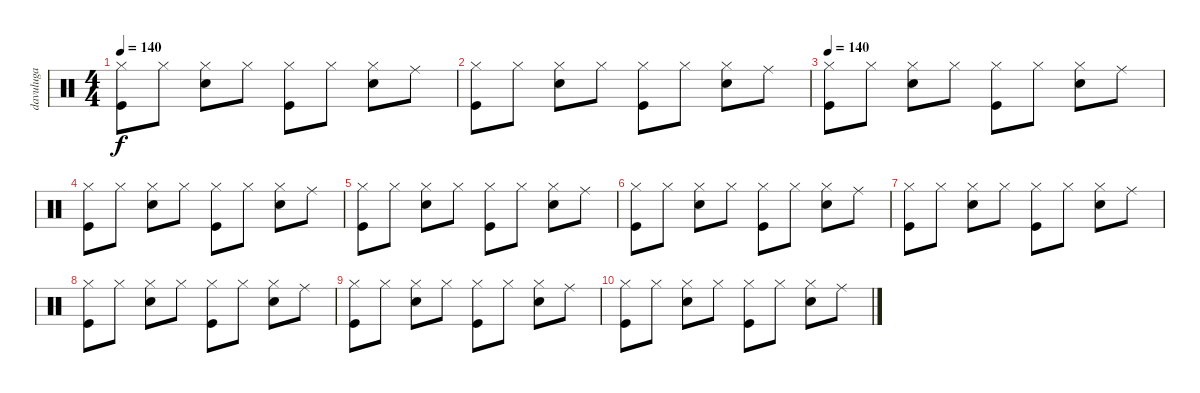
\track ("davuluga" "davuluga") {instrument percussion}
\staff {score}
\articulation defaults
\ts (4 4)
\tempo 140
\clef neutral
\ks c
("Hi-Hat (closed)" "Kick (hit)").8{dy f} "Hi-Hat (closed)".8 ("Hi-Hat (closed)" "Electric Snare (hit)").8 "Hi-Hat (closed)".8 ("Hi-Hat (closed)" "Kick (hit)").8 "Hi-Hat (closed)".8 ("Hi-Hat (closed)" "Electric Snare (hit)").8 "Ride (middle)".8 |
("Hi-Hat (closed)" "Kick (hit)").8 "Hi-Hat (closed)".8 ("Hi-Hat (closed)" "Electric Snare (hit)").8 "Hi-Hat (closed)".8 ("Hi-Hat (closed)" "Kick (hit)").8 "Hi-Hat (closed)".8 ("Hi-Hat (closed)" "Electric Snare (hit)").8 "Ride (middle)".8 |
\tempo 140
("Hi-Hat (closed)" "Kick (hit)").8 "Hi-Hat (closed)".8 ("Hi-Hat (closed)" "Electric Snare (hit)").8 "Hi-Hat (closed)".8 ("Hi-Hat (closed)" "Kick (hit)").8 "Hi-Hat (closed)".8 ("Hi-Hat (closed)" "Electric Snare (hit)").8 "Ride (middle)".8 |
("Hi-Hat (closed)" "Kick (hit)").8 "Hi-Hat (closed)".8 ("Hi-Hat (closed)" "Electric Snare (hit)").8 "Hi-Hat (closed)".8 ("Hi-Hat (closed)" "Kick (hit)").8 "Hi-Hat (closed)".8 ("Hi-Hat (closed)" "Electric Snare (hit)").8 "Ride (middle)".8 |
("Hi-Hat (closed)" "Kick (hit)").8 "Hi-Hat (closed)".8 ("Hi-Hat (closed)" "Electric Snare (hit)").8 "Hi-Hat (closed)".8 ("Hi-Hat (closed)" "Kick (hit)").8 "Hi-Hat (closed)".8 ("Hi-Hat (closed)" "Electric Snare (hit)").8 "Ride (middle)".8 |
("Hi-Hat (closed)" "Kick (hit)").8 "Hi-Hat (closed)".8 ("Hi-Hat (closed)" "Electric Snare (hit)").8 "Hi-Hat (closed)".8 ("Hi-Hat (closed)" "Kick (hit)").8 "Hi-Hat (closed)".8 ("Hi-Hat (closed)" "Electric Snare (hit)").8 "Ride (middle)".8 |
("Hi-Hat (closed)" "Kick (hit)").8 "Hi-Hat (closed)".8 ("Hi-Hat (closed)" "Electric Snare (hit)").8 "Hi-Hat (closed)".8 ("Hi-Hat (closed)" "Kick (hit)").8 "Hi-Hat (closed)".8 ("Hi-Hat (closed)" "Electric Snare (hit)").8 "Ride (middle)".8 |
("Hi-Hat (closed)" "Kick (hit)").8 "Hi-Hat (closed)".8 ("Hi-Hat (closed)" "Electric Snare (hit)").8 "Hi-Hat (closed)".8 ("Hi-Hat (closed)" "Kick (hit)").8 "Hi-Hat (closed)".8 ("Hi-Hat (closed)" "Electric Snare (hit)").8 "Ride (middle)".8 |
("Hi-Hat (closed)" "Kick (hit)").8 "Hi-Hat (closed)".8 ("Hi-Hat (closed)" "Electric Snare (hit)").8 "Hi-Hat (closed)".8 ("Hi-Hat (closed)" "Kick (hit)").8 "Hi-Hat (closed)".8 ("Hi-Hat (closed)" "Electric Snare (hit)").8 "Ride (middle)".8 |
("Hi-Hat (closed)" "Kick (hit)").8 "Hi-Hat (closed)".8 ("Hi-Hat (closed)" "Electric Snare (hit)").8 "Hi-Hat (closed)".8 ("Hi-Hat (closed)" "Kick (hit)").8 "Hi-Hat (closed)".8 ("Hi-Hat (closed)" "Electric Snare (hit)").8 "Ride (middle)".8
